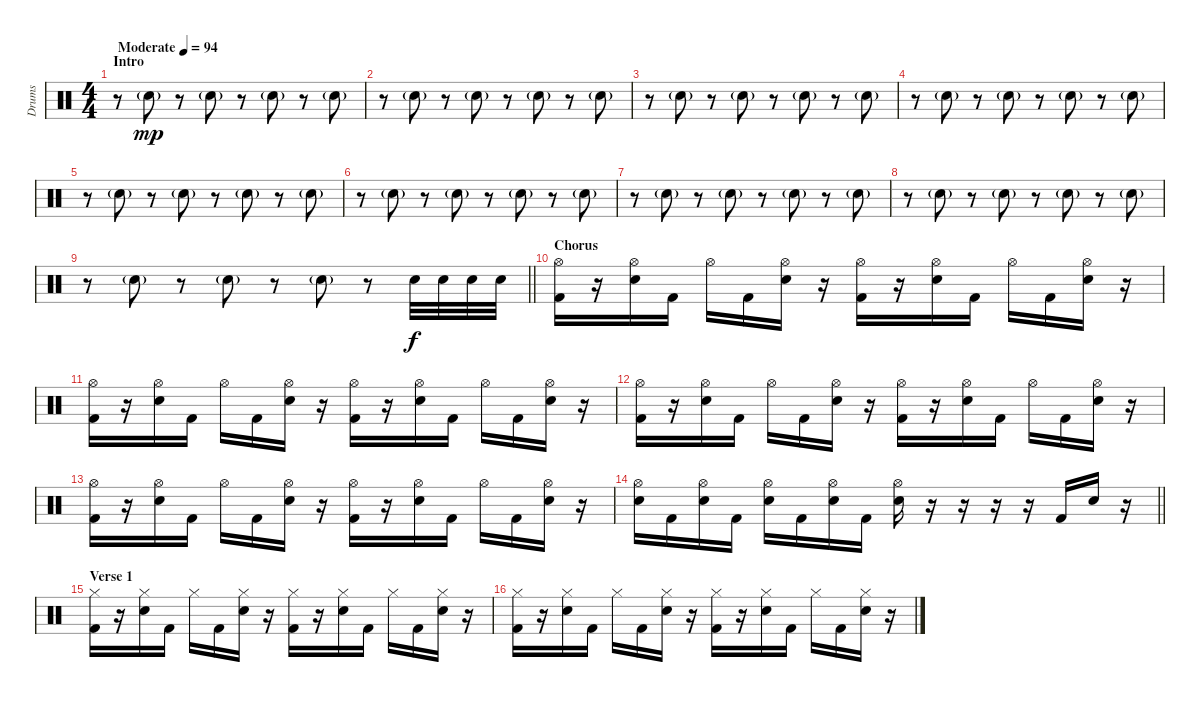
\track ("Drums" "Drums") {instrument percussion}
\staff {score}
\articulation defaults
\ts (4 4)
\section ("" "Intro")
\tempo (94 "Moderate")
\clef neutral
\ks c
r.8{dy mp} "Hand Clap (hit)"{g}.8 r.8 "Hand Clap (hit)"{g}.8 r.8 "Hand Clap (hit)"{g}.8 r.8 "Hand Clap (hit)"{g}.8 |
r.8 "Hand Clap (hit)"{g}.8 r.8 "Hand Clap (hit)"{g}.8 r.8 "Hand Clap (hit)"{g}.8 r.8 "Hand Clap (hit)"{g}.8 |
r.8 "Hand Clap (hit)"{g}.8 r.8 "Hand Clap (hit)"{g}.8 r.8 "Hand Clap (hit)"{g}.8 r.8 "Hand Clap (hit)"{g}.8 |
r.8 "Hand Clap (hit)"{g}.8 r.8 "Hand Clap (hit)"{g}.8 r.8 "Hand Clap (hit)"{g}.8 r.8 "Hand Clap (hit)"{g}.8 |
r.8 "Hand Clap (hit)"{g}.8 r.8 "Hand Clap (hit)"{g}.8 r.8 "Hand Clap (hit)"{g}.8 r.8 "Hand Clap (hit)"{g}.8 |
r.8 "Hand Clap (hit)"{g}.8 r.8 "Hand Clap (hit)"{g}.8 r.8 "Hand Clap (hit)"{g}.8 r.8 "Hand Clap (hit)"{g}.8 |
r.8 "Hand Clap (hit)"{g}.8 r.8 "Hand Clap (hit)"{g}.8 r.8 "Hand Clap (hit)"{g}.8 r.8 "Hand Clap (hit)"{g}.8 |
r.8 "Hand Clap (hit)"{g}.8 r.8 "Hand Clap (hit)"{g}.8 r.8 "Hand Clap (hit)"{g}.8 r.8 "Hand Clap (hit)"{g}.8 |
\barLineRight lightlight
r.8 "Hand Clap (hit)"{g}.8 r.8 "Hand Clap (hit)"{g}.8 r.8 "Hand Clap (hit)"{g}.8 r.8 "Snare (hit) 2".32{dy f} "Snare (hit) 2".32 "Snare (hit) 2".32 "Snare (hit) 2".32 |
\section ("" "Chorus")
("Hi-Hat (open)" "Kick (hit) 2").16 r.16 ("Hi-Hat (open)" "Snare (hit) 2").16 "Kick (hit) 2".16 "Hi-Hat (open)".16 "Kick (hit) 2".16 ("Hi-Hat (open)" "Snare (hit) 2").16 r.16 ("Hi-Hat (open)" "Kick (hit) 2").16 r.16 ("Hi-Hat (open)" "Snare (hit) 2").16 "Kick (hit) 2".16 "Hi-Hat (open)".16 "Kick (hit) 2".16 ("Hi-Hat (open)" "Snare (hit) 2").16 r.16 |
("Hi-Hat (open)" "Kick (hit) 2").16 r.16 ("Hi-Hat (open)" "Snare (hit) 2").16 "Kick (hit) 2".16 "Hi-Hat (open)".16 "Kick (hit) 2".16 ("Hi-Hat (open)" "Snare (hit) 2").16 r.16 ("Hi-Hat (open)" "Kick (hit) 2").16 r.16 ("Hi-Hat (open)" "Snare (hit) 2").16 "Kick (hit) 2".16 "Hi-Hat (open)".16 "Kick (hit) 2".16 ("Hi-Hat (open)" "Snare (hit) 2").16 r.16 |
("Hi-Hat (open)" "Kick (hit) 2").16 r.16 ("Hi-Hat (open)" "Snare (hit) 2").16 "Kick (hit) 2".16 "Hi-Hat (open)".16 "Kick (hit) 2".16 ("Hi-Hat (open)" "Snare (hit) 2").16 r.16 ("Hi-Hat (open)" "Kick (hit) 2").16 r.16 ("Hi-Hat (open)" "Snare (hit) 2").16 "Kick (hit) 2".16 "Hi-Hat (open)".16 "Kick (hit) 2".16 ("Hi-Hat (open)" "Snare (hit) 2").16 r.16 |
("Hi-Hat (open)" "Kick (hit) 2").16 r.16 ("Hi-Hat (open)" "Snare (hit) 2").16 "Kick (hit) 2".16 "Hi-Hat (open)".16 "Kick (hit) 2".16 ("Hi-Hat (open)" "Snare (hit) 2").16 r.16 ("Hi-Hat (open)" "Kick (hit) 2").16 r.16 ("Hi-Hat (open)" "Snare (hit) 2").16 "Kick (hit) 2".16 "Hi-Hat (open)".16 "Kick (hit) 2".16 ("Hi-Hat (open)" "Snare (hit) 2").16 r.16 |
\barLineRight lightlight
("Hi-Hat (open)" "Snare (hit) 2").16 "Kick (hit) 2".16 ("Hi-Hat (open)" "Snare (hit) 2").16 "Kick (hit) 2".16 ("Hi-Hat (open)" "Snare (hit) 2").16 "Kick (hit) 2".16 ("Hi-Hat (open)" "Snare (hit) 2").16 "Kick (hit) 2".16 ("Hi-Hat (open)" "Snare (hit) 2").16 r.16 r.16 r.16 r.16 "Kick (hit) 2".16 "Snare (hit) 2".16 r.16 |
\section ("" "Verse 1")
("Hi-Hat (closed)" "Kick (hit) 2").16 r.16 ("Hi-Hat (closed)" "Snare (hit) 2").16 "Kick (hit) 2".16 "Hi-Hat (closed)".16 "Kick (hit) 2".16 ("Hi-Hat (closed)" "Snare (hit) 2").16 r.16 ("Hi-Hat (closed)" "Kick (hit) 2").16 r.16 ("Hi-Hat (closed)" "Snare (hit) 2").16 "Kick (hit) 2".16 "Hi-Hat (closed)".16 "Kick (hit) 2".16 ("Hi-Hat (closed)" "Snare (hit) 2").16 r.16 |
("Hi-Hat (closed)" "Kick (hit) 2").16 r.16 ("Hi-Hat (closed)" "Snare (hit) 2").16 "Kick (hit) 2".16 "Hi-Hat (closed)".16 "Kick (hit) 2".16 ("Hi-Hat (closed)" "Snare (hit) 2").16 r.16 ("Hi-Hat (closed)" "Kick (hit) 2").16 r.16 ("Hi-Hat (closed)" "Snare (hit) 2").16 "Kick (hit) 2".16 "Hi-Hat (closed)".16 "Kick (hit) 2".16 ("Hi-Hat (closed)" "Snare (hit) 2").16 r.16
